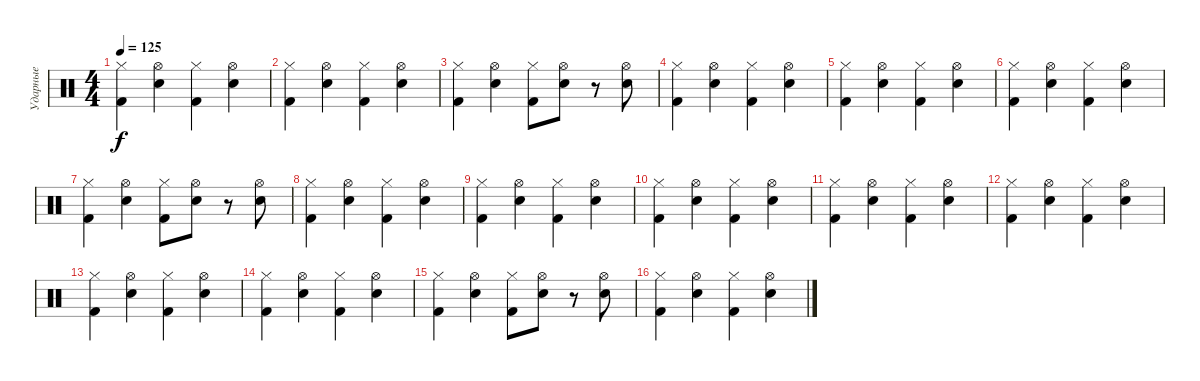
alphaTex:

\track ("Ударные" "Ударные") {instrument percussion}
\staff {score}
\articulation defaults
\ts (4 4)
\tempo 125
\clef neutral
\ks c
("Hi-Hat (closed)" "Kick (hit) 2").4{dy f} ("Hi-Hat (open)" "Electric Snare (hit)").4 ("Hi-Hat (closed)" "Kick (hit) 2").4 ("Hi-Hat (open)" "Electric Snare (hit)").4 |
("Hi-Hat (closed)" "Kick (hit) 2").4 ("Hi-Hat (open)" "Electric Snare (hit)").4 ("Hi-Hat (closed)" "Kick (hit) 2").4 ("Hi-Hat (open)" "Electric Snare (hit)").4 |
("Hi-Hat (closed)" "Kick (hit) 2").4 ("Hi-Hat (open)" "Electric Snare (hit)").4 ("Hi-Hat (closed)" "Kick (hit) 2").8 ("Hi-Hat (open)" "Electric Snare (hit)").8 r.8 ("Hi-Hat (open)" "Electric Snare (hit)").8 |
("Hi-Hat (closed)" "Kick (hit) 2").4 ("Hi-Hat (open)" "Electric Snare (hit)").4 ("Hi-Hat (closed)" "Kick (hit) 2").4 ("Hi-Hat (open)" "Electric Snare (hit)").4 |
("Hi-Hat (closed)" "Kick (hit) 2").4 ("Hi-Hat (open)" "Electric Snare (hit)").4 ("Hi-Hat (closed)" "Kick (hit) 2").4 ("Hi-Hat (open)" "Electric Snare (hit)").4 |
("Hi-Hat (closed)" "Kick (hit) 2").4 ("Hi-Hat (open)" "Electric Snare (hit)").4 ("Hi-Hat (closed)" "Kick (hit) 2").4 ("Hi-Hat (open)" "Electric Snare (hit)").4 |
("Hi-Hat (closed)" "Kick (hit) 2").4 ("Hi-Hat (open)" "Electric Snare (hit)").4 ("Hi-Hat (closed)" "Kick (hit) 2").8 ("Hi-Hat (open)" "Electric Snare (hit)").8 r.8 ("Hi-Hat (open)" "Electric Snare (hit)").8 |
("Hi-Hat (closed)" "Kick (hit) 2").4 ("Hi-Hat (open)" "Electric Snare (hit)").4 ("Hi-Hat (closed)" "Kick (hit) 2").4 ("Hi-Hat (open)" "Electric Snare (hit)").4 |
("Hi-Hat (closed)" "Kick (hit) 2").4 ("Hi-Hat (open)" "Electric Snare (hit)").4 ("Hi-Hat (closed)" "Kick (hit) 2").4 ("Hi-Hat (open)" "Electric Snare (hit)").4 |
("Hi-Hat (closed)" "Kick (hit) 2").4 ("Hi-Hat (open)" "Electric Snare (hit)").4 ("Hi-Hat (closed)" "Kick (hit) 2").4 ("Hi-Hat (open)" "Electric Snare (hit)").4 |
("Hi-Hat (closed)" "Kick (hit) 2").4 ("Hi-Hat (open)" "Electric Snare (hit)").4 ("Hi-Hat (closed)" "Kick (hit) 2").4 ("Hi-Hat (open)" "Electric Snare (hit)").4 |
("Hi-Hat (closed)" "Kick (hit) 2").4 ("Hi-Hat (open)" "Electric Snare (hit)").4 ("Hi-Hat (closed)" "Kick (hit) 2").4 ("Hi-Hat (open)" "Electric Snare (hit)").4 |
("Hi-Hat (closed)" "Kick (hit) 2").4 ("Hi-Hat (open)" "Electric Snare (hit)").4 ("Hi-Hat (closed)" "Kick (hit) 2").4 ("Hi-Hat (open)" "Electric Snare (hit)").4 |
("Hi-Hat (closed)" "Kick (hit) 2").4 ("Hi-Hat (open)" "Electric Snare (hit)").4 ("Hi-Hat (closed)" "Kick (hit) 2").4 ("Hi-Hat (open)" "Electric Snare (hit)").4 |
("Hi-Hat (closed)" "Kick (hit) 2").4 ("Hi-Hat (open)" "Electric Snare (hit)").4 ("Hi-Hat (closed)" "Kick (hit) 2").8 ("Hi-Hat (open)" "Electric Snare (hit)").8 r.8 ("Hi-Hat (open)" "Electric Snare (hit)").8 |
("Hi-Hat (closed)" "Kick (hit) 2").4 ("Hi-Hat (open)" "Electric Snare (hit)").4 ("Hi-Hat (closed)" "Kick (hit) 2").4 ("Hi-Hat (open)" "Electric Snare (hit)").4
